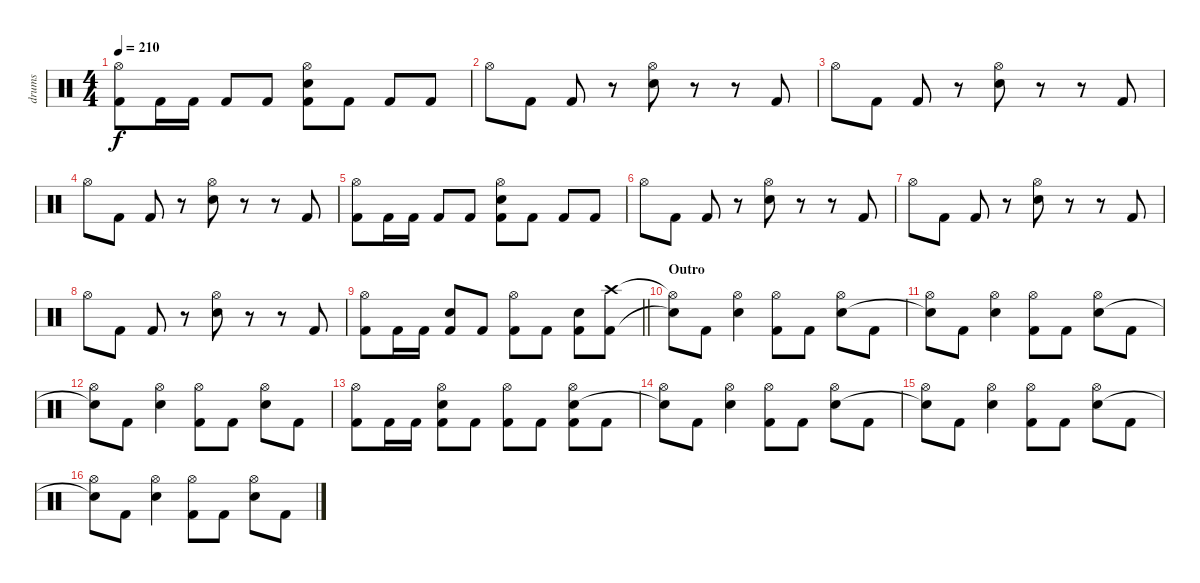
\track ("drums" "drums") {solo instrument percussion}
\staff {score}
\articulation defaults
\ts (4 4)
\tempo 210
\clef neutral
\ks c
("Hi-Hat (open)" "Kick (hit) 2").8{dy f} "Kick (hit) 2".16 "Kick (hit) 2".16 "Kick (hit) 2".8 "Kick (hit) 2".8 ("Hi-Hat (open)" "Electric Snare (hit)" "Kick (hit) 2").8 "Kick (hit) 2".8 "Kick (hit) 2".8 "Kick (hit) 2".8 |
"Hi-Hat (open)".8 "Kick (hit) 2".8 "Kick (hit) 2".8 r.8 ("Hi-Hat (open)" "Electric Snare (hit)").8 r.8 r.8 "Kick (hit) 2".8 |
"Hi-Hat (open)".8 "Kick (hit) 2".8 "Kick (hit) 2".8 r.8 ("Hi-Hat (open)" "Electric Snare (hit)").8 r.8 r.8 "Kick (hit) 2".8 |
"Hi-Hat (open)".8 "Kick (hit) 2".8 "Kick (hit) 2".8 r.8 ("Hi-Hat (open)" "Electric Snare (hit)").8 r.8 r.8 "Kick (hit) 2".8 |
("Hi-Hat (open)" "Kick (hit) 2").8 "Kick (hit) 2".16 "Kick (hit) 2".16 "Kick (hit) 2".8 "Kick (hit) 2".8 ("Hi-Hat (open)" "Electric Snare (hit)" "Kick (hit) 2").8 "Kick (hit) 2".8 "Kick (hit) 2".8 "Kick (hit) 2".8 |
"Hi-Hat (open)".8 "Kick (hit) 2".8 "Kick (hit) 2".8 r.8 ("Hi-Hat (open)" "Electric Snare (hit)").8 r.8 r.8 "Kick (hit) 2".8 |
"Hi-Hat (open)".8 "Kick (hit) 2".8 "Kick (hit) 2".8 r.8 ("Hi-Hat (open)" "Electric Snare (hit)").8 r.8 r.8 "Kick (hit) 2".8 |
"Hi-Hat (open)".8 "Kick (hit) 2".8 "Kick (hit) 2".8 r.8 ("Hi-Hat (open)" "Electric Snare (hit)").8 r.8 r.8 "Kick (hit) 2".8 |
\barLineRight lightlight
("Hi-Hat (open)" "Kick (hit) 2").8 "Kick (hit) 2".16 "Kick (hit) 2".16 ("Electric Snare (hit)" "Kick (hit) 2").8 "Kick (hit) 2".8 ("Hi-Hat (open)" "Kick (hit) 2").8 "Kick (hit) 2".8 ("Electric Snare (hit)" "Kick (hit) 2").8 ("Crash high (hit)" "Kick (hit) 2").8 |
\section ("" "Outro")
("Hi-Hat (open)"{t} "Snare (hit)"{t}).8 "Kick (hit) 2".8 ("Hi-Hat (open)" "Electric Snare (hit)").4 ("Hi-Hat (open)" "Kick (hit) 2").8 "Kick (hit) 2".8 ("Hi-Hat (open)" "Electric Snare (hit)").8 "Kick (hit) 2".8 |
("Hi-Hat (open)" "Snare (hit)"{t}).8 "Kick (hit) 2".8 ("Hi-Hat (open)" "Electric Snare (hit)").4 ("Hi-Hat (open)" "Kick (hit) 2").8 "Kick (hit) 2".8 ("Hi-Hat (open)" "Electric Snare (hit)").8 "Kick (hit) 2".8 |
("Hi-Hat (open)" "Snare (hit)"{t}).8 "Kick (hit) 2".8 ("Hi-Hat (open)" "Electric Snare (hit)").4 ("Hi-Hat (open)" "Kick (hit) 2").8 "Kick (hit) 2".8 ("Hi-Hat (open)" "Electric Snare (hit)").8 "Kick (hit) 2".8 |
("Hi-Hat (open)" "Kick (hit) 2").8 "Kick (hit) 2".16 "Kick (hit) 2".16 ("Hi-Hat (open)" "Electric Snare (hit)" "Kick (hit) 2").8 "Kick (hit) 2".8 ("Hi-Hat (open)" "Kick (hit) 2").8 "Kick (hit) 2".8 ("Hi-Hat (open)" "Electric Snare (hit)" "Kick (hit) 2").8 "Kick (hit) 2".8 |
("Hi-Hat (open)" "Snare (hit)"{t}).8 "Kick (hit) 2".8 ("Hi-Hat (open)" "Electric Snare (hit)").4 ("Hi-Hat (open)" "Kick (hit) 2").8 "Kick (hit) 2".8 ("Hi-Hat (open)" "Electric Snare (hit)").8 "Kick (hit) 2".8 |
("Hi-Hat (open)" "Snare (hit)"{t}).8 "Kick (hit) 2".8 ("Hi-Hat (open)" "Electric Snare (hit)").4 ("Hi-Hat (open)" "Kick (hit) 2").8 "Kick (hit) 2".8 ("Hi-Hat (open)" "Electric Snare (hit)").8 "Kick (hit) 2".8 |
("Hi-Hat (open)" "Snare (hit)"{t}).8 "Kick (hit) 2".8 ("Hi-Hat (open)" "Electric Snare (hit)").4 ("Hi-Hat (open)" "Kick (hit) 2").8 "Kick (hit) 2".8 ("Hi-Hat (open)" "Electric Snare (hit)").8 "Kick (hit) 2".8
